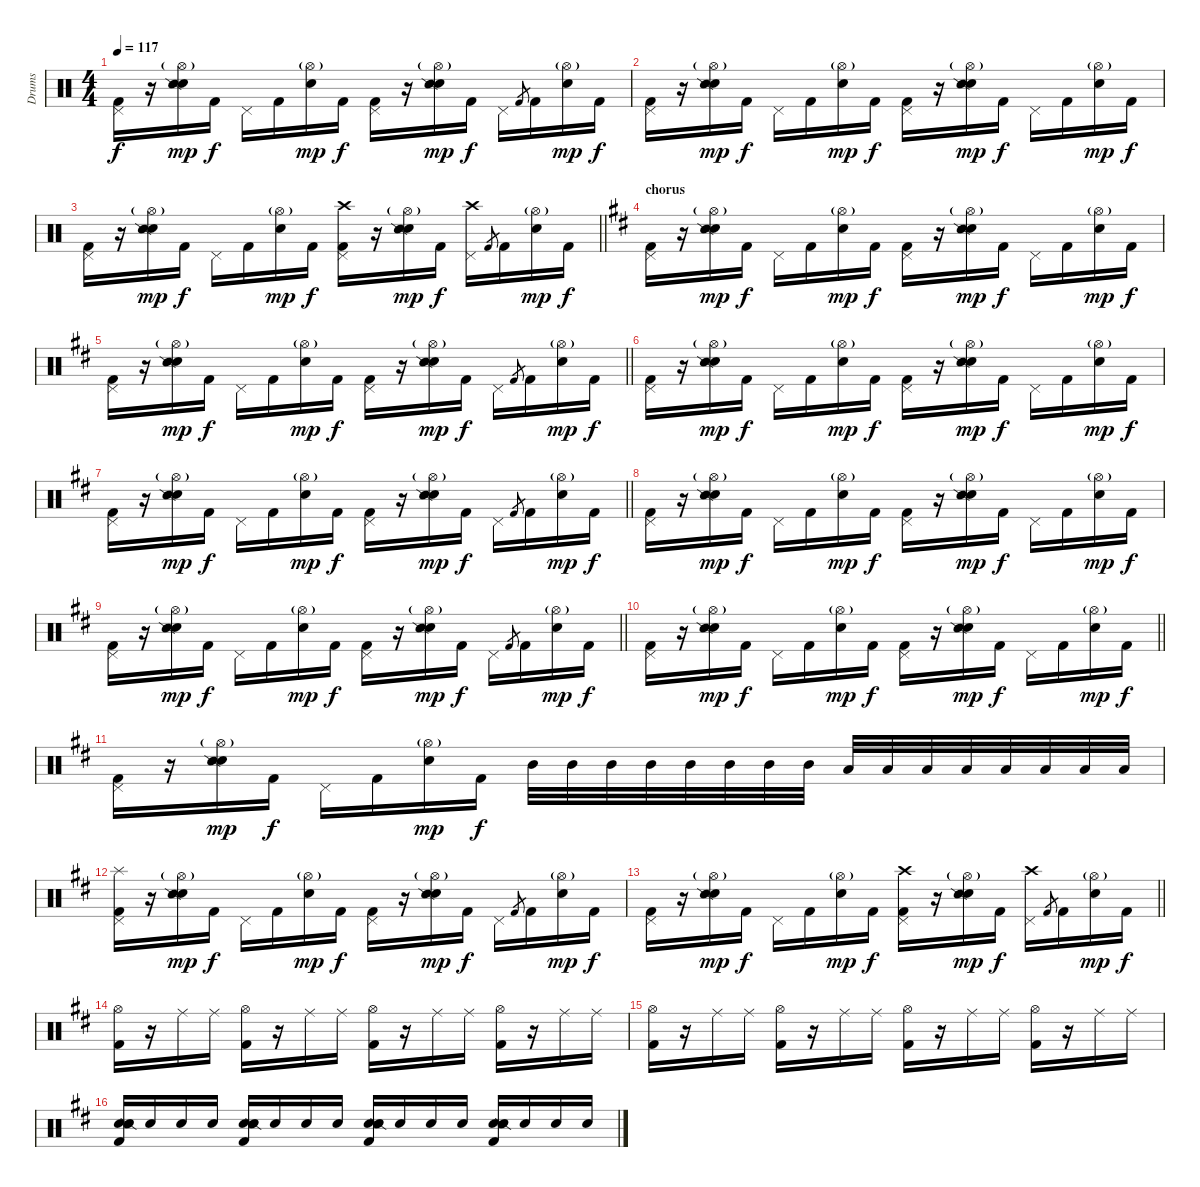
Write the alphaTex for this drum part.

\track ("Drums" "Drums") {instrument percussion}
\staff {score}
\articulation defaults
\ts (4 4)
\tempo 117
\clef neutral
\ks c
("Pedal Hi-Hat (hit)" "Kick (hit) 2").16{dy f} r.16 ("Hi-Hat (open)"{g} "Electric Snare (hit)" "Snare (side stick) 2").16{dy mp} "Kick (hit) 2".16{dy f} "Pedal Hi-Hat (hit)".16 "Kick (hit) 2".16 ("Hi-Hat (open)"{g} "Electric Snare (hit)").16{dy mp} "Kick (hit) 2".16{dy f} ("Pedal Hi-Hat (hit)" "Kick (hit) 2").16 r.16 ("Hi-Hat (open)"{g} "Electric Snare (hit)" "Snare (side stick) 2").16{dy mp} "Kick (hit) 2".16{dy f} "Pedal Hi-Hat (hit)".16 "Kick (hit) 2".8{gr} "Kick (hit) 2".16 ("Hi-Hat (open)"{g} "Electric Snare (hit)").16{dy mp} "Kick (hit) 2".16{dy f} |
("Pedal Hi-Hat (hit)" "Kick (hit) 2").16 r.16 ("Hi-Hat (open)"{g} "Electric Snare (hit)" "Snare (side stick) 2").16{dy mp} "Kick (hit) 2".16{dy f} "Pedal Hi-Hat (hit)".16 "Kick (hit) 2".16 ("Hi-Hat (open)"{g} "Electric Snare (hit)").16{dy mp} "Kick (hit) 2".16{dy f} ("Pedal Hi-Hat (hit)" "Kick (hit) 2").16 r.16 ("Hi-Hat (open)"{g} "Electric Snare (hit)" "Snare (side stick) 2").16{dy mp} "Kick (hit) 2".16{dy f} "Pedal Hi-Hat (hit)".16 "Kick (hit) 2".16 ("Hi-Hat (open)"{g} "Electric Snare (hit)").16{dy mp} "Kick (hit) 2".16{dy f} |
\barLineRight lightlight
("Pedal Hi-Hat (hit)" "Kick (hit) 2").16 r.16 ("Hi-Hat (open)"{g} "Electric Snare (hit)" "Snare (side stick) 2").16{dy mp} "Kick (hit) 2".16{dy f} "Pedal Hi-Hat (hit)".16 "Kick (hit) 2".16 ("Hi-Hat (open)"{g} "Electric Snare (hit)").16{dy mp} "Kick (hit) 2".16{dy f} ("Pedal Hi-Hat (hit)" "Crash high (hit)" "Kick (hit) 2").16 r.16 ("Hi-Hat (open)"{g} "Electric Snare (hit)" "Snare (side stick) 2").16{dy mp} "Kick (hit) 2".16{dy f} ("Pedal Hi-Hat (hit)" "Crash high (hit)").16 "Kick (hit) 2".8{gr} "Kick (hit) 2".16 ("Hi-Hat (open)"{g} "Electric Snare (hit)").16{dy mp} "Kick (hit) 2".16{dy f} |
\section ("" "chorus")
\ks d
("Pedal Hi-Hat (hit)" "Kick (hit) 2").16 r.16 ("Hi-Hat (open)"{g} "Electric Snare (hit)" "Snare (side stick) 2").16{dy mp} "Kick (hit) 2".16{dy f} "Pedal Hi-Hat (hit)".16 "Kick (hit) 2".16 ("Hi-Hat (open)"{g} "Electric Snare (hit)").16{dy mp} "Kick (hit) 2".16{dy f} ("Pedal Hi-Hat (hit)" "Kick (hit) 2").16 r.16 ("Hi-Hat (open)"{g} "Electric Snare (hit)" "Snare (side stick) 2").16{dy mp} "Kick (hit) 2".16{dy f} "Pedal Hi-Hat (hit)".16 "Kick (hit) 2".16 ("Hi-Hat (open)"{g} "Electric Snare (hit)").16{dy mp} "Kick (hit) 2".16{dy f} |
\barLineRight lightlight
("Pedal Hi-Hat (hit)" "Kick (hit) 2").16 r.16 ("Hi-Hat (open)"{g} "Electric Snare (hit)" "Snare (side stick) 2").16{dy mp} "Kick (hit) 2".16{dy f} "Pedal Hi-Hat (hit)".16 "Kick (hit) 2".16 ("Hi-Hat (open)"{g} "Electric Snare (hit)").16{dy mp} "Kick (hit) 2".16{dy f} ("Pedal Hi-Hat (hit)" "Kick (hit) 2").16 r.16 ("Hi-Hat (open)"{g} "Electric Snare (hit)" "Snare (side stick) 2").16{dy mp} "Kick (hit) 2".16{dy f} "Pedal Hi-Hat (hit)".16 "Kick (hit) 2".8{gr} "Kick (hit) 2".16 ("Hi-Hat (open)"{g} "Electric Snare (hit)").16{dy mp} "Kick (hit) 2".16{dy f} |
("Pedal Hi-Hat (hit)" "Kick (hit) 2").16 r.16 ("Hi-Hat (open)"{g} "Electric Snare (hit)" "Snare (side stick) 2").16{dy mp} "Kick (hit) 2".16{dy f} "Pedal Hi-Hat (hit)".16 "Kick (hit) 2".16 ("Hi-Hat (open)"{g} "Electric Snare (hit)").16{dy mp} "Kick (hit) 2".16{dy f} ("Pedal Hi-Hat (hit)" "Kick (hit) 2").16 r.16 ("Hi-Hat (open)"{g} "Electric Snare (hit)" "Snare (side stick) 2").16{dy mp} "Kick (hit) 2".16{dy f} "Pedal Hi-Hat (hit)".16 "Kick (hit) 2".16 ("Hi-Hat (open)"{g} "Electric Snare (hit)").16{dy mp} "Kick (hit) 2".16{dy f} |
\barLineRight lightlight
("Pedal Hi-Hat (hit)" "Kick (hit) 2").16 r.16 ("Hi-Hat (open)"{g} "Electric Snare (hit)" "Snare (side stick) 2").16{dy mp} "Kick (hit) 2".16{dy f} "Pedal Hi-Hat (hit)".16 "Kick (hit) 2".16 ("Hi-Hat (open)"{g} "Electric Snare (hit)").16{dy mp} "Kick (hit) 2".16{dy f} ("Pedal Hi-Hat (hit)" "Kick (hit) 2").16 r.16 ("Hi-Hat (open)"{g} "Electric Snare (hit)" "Snare (side stick) 2").16{dy mp} "Kick (hit) 2".16{dy f} "Pedal Hi-Hat (hit)".16 "Kick (hit) 2".8{gr} "Kick (hit) 2".16 ("Hi-Hat (open)"{g} "Electric Snare (hit)").16{dy mp} "Kick (hit) 2".16{dy f} |
("Pedal Hi-Hat (hit)" "Kick (hit) 2").16 r.16 ("Hi-Hat (open)"{g} "Electric Snare (hit)" "Snare (side stick) 2").16{dy mp} "Kick (hit) 2".16{dy f} "Pedal Hi-Hat (hit)".16 "Kick (hit) 2".16 ("Hi-Hat (open)"{g} "Electric Snare (hit)").16{dy mp} "Kick (hit) 2".16{dy f} ("Pedal Hi-Hat (hit)" "Kick (hit) 2").16 r.16 ("Hi-Hat (open)"{g} "Electric Snare (hit)" "Snare (side stick) 2").16{dy mp} "Kick (hit) 2".16{dy f} "Pedal Hi-Hat (hit)".16 "Kick (hit) 2".16 ("Hi-Hat (open)"{g} "Electric Snare (hit)").16{dy mp} "Kick (hit) 2".16{dy f} |
\barLineRight lightlight
("Pedal Hi-Hat (hit)" "Kick (hit) 2").16 r.16 ("Hi-Hat (open)"{g} "Electric Snare (hit)" "Snare (side stick) 2").16{dy mp} "Kick (hit) 2".16{dy f} "Pedal Hi-Hat (hit)".16 "Kick (hit) 2".16 ("Hi-Hat (open)"{g} "Electric Snare (hit)").16{dy mp} "Kick (hit) 2".16{dy f} ("Pedal Hi-Hat (hit)" "Kick (hit) 2").16 r.16 ("Hi-Hat (open)"{g} "Electric Snare (hit)" "Snare (side stick) 2").16{dy mp} "Kick (hit) 2".16{dy f} "Pedal Hi-Hat (hit)".16 "Kick (hit) 2".8{gr} "Kick (hit) 2".16 ("Hi-Hat (open)"{g} "Electric Snare (hit)").16{dy mp} "Kick (hit) 2".16{dy f} |
\barLineRight lightlight
("Pedal Hi-Hat (hit)" "Kick (hit) 2").16 r.16 ("Hi-Hat (open)"{g} "Electric Snare (hit)" "Snare (side stick) 2").16{dy mp} "Kick (hit) 2".16{dy f} "Pedal Hi-Hat (hit)".16 "Kick (hit) 2".16 ("Hi-Hat (open)"{g} "Electric Snare (hit)").16{dy mp} "Kick (hit) 2".16{dy f} ("Pedal Hi-Hat (hit)" "Kick (hit) 2").16 r.16 ("Hi-Hat (open)"{g} "Electric Snare (hit)" "Snare (side stick) 2").16{dy mp} "Kick (hit) 2".16{dy f} "Pedal Hi-Hat (hit)".16 "Kick (hit) 2".16 ("Hi-Hat (open)"{g} "Electric Snare (hit)").16{dy mp} "Kick (hit) 2".16{dy f} |
("Pedal Hi-Hat (hit)" "Kick (hit) 2").16 r.16 ("Hi-Hat (open)"{g} "Electric Snare (hit)" "Snare (side stick) 2").16{dy mp} "Kick (hit) 2".16{dy f} "Pedal Hi-Hat (hit)".16 "Kick (hit) 2".16 ("Hi-Hat (open)"{g} "Electric Snare (hit)").16{dy mp} "Kick (hit) 2".16{dy f} "Mid Tom (hit)".32 "Mid Tom (hit)".32 "Mid Tom (hit)".32 "Mid Tom (hit)".32 "Mid Tom (hit)".32 "Mid Tom (hit)".32 "Mid Tom (hit)".32 "Mid Tom (hit)".32 "Low Tom (hit)".32 "Low Tom (hit)".32 "Low Tom (hit)".32 "Low Tom (hit)".32 "Low Tom (hit)".32 "Low Tom (hit)".32 "Low Tom (hit)".32 "Low Tom (hit)".32 |
("Pedal Hi-Hat (hit)" "Splash (hit)" "Kick (hit) 2").16 r.16 ("Hi-Hat (open)"{g} "Electric Snare (hit)" "Snare (side stick) 2").16{dy mp} "Kick (hit) 2".16{dy f} "Pedal Hi-Hat (hit)".16 "Kick (hit) 2".16 ("Hi-Hat (open)"{g} "Electric Snare (hit)").16{dy mp} "Kick (hit) 2".16{dy f} ("Pedal Hi-Hat (hit)" "Kick (hit) 2").16 r.16 ("Hi-Hat (open)"{g} "Electric Snare (hit)" "Snare (side stick) 2").16{dy mp} "Kick (hit) 2".16{dy f} "Pedal Hi-Hat (hit)".16 "Kick (hit) 2".8{gr} "Kick (hit) 2".16 ("Hi-Hat (open)"{g} "Electric Snare (hit)").16{dy mp} "Kick (hit) 2".16{dy f} |
\barLineRight lightlight
("Pedal Hi-Hat (hit)" "Kick (hit) 2").16 r.16 ("Hi-Hat (open)"{g} "Electric Snare (hit)" "Snare (side stick) 2").16{dy mp} "Kick (hit) 2".16{dy f} "Pedal Hi-Hat (hit)".16 "Kick (hit) 2".16 ("Hi-Hat (open)"{g} "Electric Snare (hit)").16{dy mp} "Kick (hit) 2".16{dy f} ("Pedal Hi-Hat (hit)" "Crash high (hit)" "Kick (hit) 2").16 r.16 ("Hi-Hat (open)"{g} "Electric Snare (hit)" "Snare (side stick) 2").16{dy mp} "Kick (hit) 2".16{dy f} ("Pedal Hi-Hat (hit)" "Crash high (hit)").16 "Kick (hit) 2".8{gr} "Kick (hit) 2".16 ("Hi-Hat (open)"{g} "Electric Snare (hit)").16{dy mp} "Kick (hit) 2".16{dy f} |
("Hi-Hat (open)" "Kick (hit) 2").16 r.16 "Ride (middle)".16 "Ride (middle)".16{volume 10} ("Hi-Hat (open)" "Kick (hit) 2").16 r.16 "Ride (middle)".16{volume 12} "Ride (middle)".16{volume 10} ("Hi-Hat (open)" "Kick (hit) 2").16 r.16 "Ride (middle)".16{volume 12} "Ride (middle)".16{volume 10} ("Hi-Hat (open)" "Kick (hit) 2").16 r.16 "Ride (middle)".16{volume 12} "Ride (middle)".16{volume 10} |
("Hi-Hat (open)" "Kick (hit) 2").16 r.16 "Ride (middle)".16 "Ride (middle)".16{volume 10} ("Hi-Hat (open)" "Kick (hit) 2").16 r.16 "Ride (middle)".16{volume 12} "Ride (middle)".16{volume 10} ("Hi-Hat (open)" "Kick (hit) 2").16 r.16 "Ride (middle)".16{volume 12} "Ride (middle)".16{volume 10} ("Hi-Hat (open)" "Kick (hit) 2").16 r.16 "Ride (middle)".16{volume 12} "Ride (middle)".16{volume 10} |
("Snare (hit) 2" "Electric Snare (hit)" "Snare (side stick) 2" "Kick (hit) 2").16 "Electric Snare (hit)".16 "Electric Snare (hit)".16 "Electric Snare (hit)".16 ("Snare (hit) 2" "Electric Snare (hit)" "Snare (side stick) 2" "Kick (hit) 2").16 "Electric Snare (hit)".16 "Electric Snare (hit)".16 "Electric Snare (hit)".16 ("Snare (hit) 2" "Electric Snare (hit)" "Snare (side stick) 2" "Kick (hit) 2").16 "Electric Snare (hit)".16 "Electric Snare (hit)".16 "Electric Snare (hit)".16 ("Snare (hit) 2" "Electric Snare (hit)" "Snare (side stick) 2" "Kick (hit) 2").16 "Electric Snare (hit)".16 "Electric Snare (hit)".16 "Electric Snare (hit)".16
